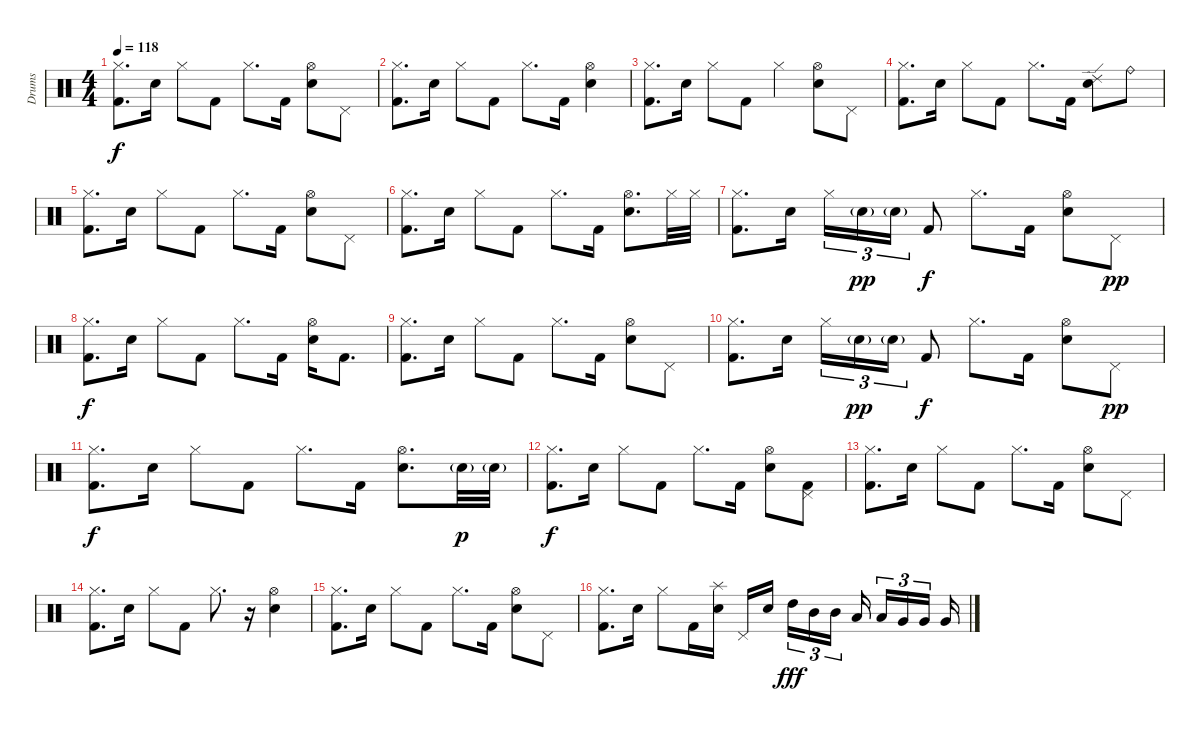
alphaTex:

\track ("Drums" "Drums") {instrument percussion}
\staff {score}
\articulation defaults
\ts (4 4)
\tempo 118
\clef neutral
\ks c
("Hi-Hat (closed)" "Kick (hit) 2").8{d dy f} "Electric Snare (hit)".16 "Hi-Hat (closed)".8 "Kick (hit) 2".8 "Hi-Hat (closed)".8{d} "Kick (hit) 2".16 ("Hi-Hat (open)" "Electric Snare (hit)").8 "Pedal Hi-Hat (hit)".8 |
("Hi-Hat (closed)" "Kick (hit) 2").8{d} "Electric Snare (hit)".16 "Hi-Hat (closed)".8 "Kick (hit) 2".8 "Hi-Hat (closed)".8{d} "Kick (hit) 2".16 ("Hi-Hat (open)" "Electric Snare (hit)").4 |
("Hi-Hat (closed)" "Kick (hit) 2").8{d} "Electric Snare (hit)".16 "Hi-Hat (closed)".8 "Kick (hit) 2".8 "Hi-Hat (closed)".4 ("Hi-Hat (open)" "Electric Snare (hit)").8 "Pedal Hi-Hat (hit)".8 |
("Hi-Hat (closed)" "Kick (hit) 2").8{d} "Electric Snare (hit)".16 "Hi-Hat (closed)".8 "Kick (hit) 2".8 "Hi-Hat (closed)".8{d} "Kick (hit) 2".16 ("Ride (edge) 2" "Electric Snare (hit)").8 "Ride (bell)".8 |
("Hi-Hat (closed)" "Kick (hit) 2").8{d} "Electric Snare (hit)".16 "Hi-Hat (closed)".8 "Kick (hit) 2".8 "Hi-Hat (closed)".8{d} "Kick (hit) 2".16 ("Hi-Hat (open)" "Electric Snare (hit)").8 "Pedal Hi-Hat (hit)".8 |
("Hi-Hat (closed)" "Kick (hit) 2").8{d} "Electric Snare (hit)".16 "Hi-Hat (closed)".8 "Kick (hit) 2".8 "Hi-Hat (closed)".8{d} "Kick (hit) 2".16 ("Hi-Hat (open)" "Electric Snare (hit)").8{d} "Hi-Hat (closed)".32 "Hi-Hat (closed)".32 |
("Hi-Hat (closed)" "Kick (hit) 2").8{d} "Electric Snare (hit)".16 "Hi-Hat (closed)".16{tu (3 2)} "Electric Snare (hit)"{g}.16{tu (3 2) dy pp} "Electric Snare (hit)"{g}.16{tu (3 2)} "Kick (hit) 2".8{dy f} "Hi-Hat (closed)".8{d} "Kick (hit) 2".16 ("Hi-Hat (open)" "Electric Snare (hit)").8 "Pedal Hi-Hat (hit)".8{dy pp} |
("Hi-Hat (closed)" "Kick (hit) 2").8{d dy f} "Electric Snare (hit)".16 "Hi-Hat (closed)".8 "Kick (hit) 2".8 "Hi-Hat (closed)".8{d} "Kick (hit) 2".16 ("Hi-Hat (open)" "Electric Snare (hit)").16 "Kick (hit) 2".8{d} |
("Hi-Hat (closed)" "Kick (hit) 2").8{d} "Electric Snare (hit)".16 "Hi-Hat (closed)".8 "Kick (hit) 2".8 "Hi-Hat (closed)".8{d} "Kick (hit) 2".16 ("Hi-Hat (open)" "Electric Snare (hit)").8 "Pedal Hi-Hat (hit)".8 |
("Hi-Hat (closed)" "Kick (hit) 2").8{d} "Electric Snare (hit)".16 "Hi-Hat (closed)".16{tu (3 2)} "Electric Snare (hit)"{g}.16{tu (3 2) dy pp} "Electric Snare (hit)"{g}.16{tu (3 2)} "Kick (hit) 2".8{dy f} "Hi-Hat (closed)".8{d} "Kick (hit) 2".16 ("Hi-Hat (open)" "Electric Snare (hit)").8 "Pedal Hi-Hat (hit)".8{dy pp} |
("Hi-Hat (closed)" "Kick (hit) 2").8{d dy f} "Electric Snare (hit)".16 "Hi-Hat (closed)".8 "Kick (hit) 2".8 "Hi-Hat (closed)".8{d} "Kick (hit) 2".16 ("Hi-Hat (open)" "Electric Snare (hit)").8{d} "Electric Snare (hit)"{g}.32{dy p} "Electric Snare (hit)"{g}.32 |
("Hi-Hat (closed)" "Kick (hit) 2").8{d dy f} "Electric Snare (hit)".16 "Hi-Hat (closed)".8 "Kick (hit) 2".8 "Hi-Hat (closed)".8{d} "Kick (hit) 2".16 ("Hi-Hat (open)" "Electric Snare (hit)").8 ("Pedal Hi-Hat (hit)" "Kick (hit) 2").8 |
("Hi-Hat (closed)" "Kick (hit) 2").8{d} "Electric Snare (hit)".16 "Hi-Hat (closed)".8 "Kick (hit) 2".8 "Hi-Hat (closed)".8{d} "Kick (hit) 2".16 ("Hi-Hat (open)" "Electric Snare (hit)").8 "Pedal Hi-Hat (hit)".8 |
("Hi-Hat (closed)" "Kick (hit) 2").8{d} "Electric Snare (hit)".16 "Hi-Hat (closed)".8 "Kick (hit) 2".8 "Hi-Hat (closed)".8{d} r.16 ("Hi-Hat (open)" "Electric Snare (hit)").4 |
("Hi-Hat (closed)" "Kick (hit) 2").8{d} "Electric Snare (hit)".16 "Hi-Hat (closed)".8 "Kick (hit) 2".8 "Hi-Hat (closed)".8{d} "Kick (hit) 2".16 ("Hi-Hat (open)" "Electric Snare (hit)").8 "Pedal Hi-Hat (hit)".8 |
("Hi-Hat (closed)" "Kick (hit) 2").8{d} "Electric Snare (hit)".16 "Hi-Hat (closed)".8 "Kick (hit) 2".16 ("Splash (hit)" "Electric Snare (hit)").16 "Pedal Hi-Hat (hit)".16 "Electric Snare (hit)".16{beam splitsecondary} "High Tom (hit)".16{tu (3 2) dy fff} "Mid Tom (hit)".16{tu (3 2)} "Mid Tom (hit)".16{tu (3 2)} "Low Tom (hit)".16{beam splitsecondary} "Low Tom (hit)".16{tu (3 2)} "Very Low Tom (hit)".16{tu (3 2)} "Very Low Tom (hit)".16{tu (3 2) beam splitsecondary} "Very Low Tom (hit)".16
